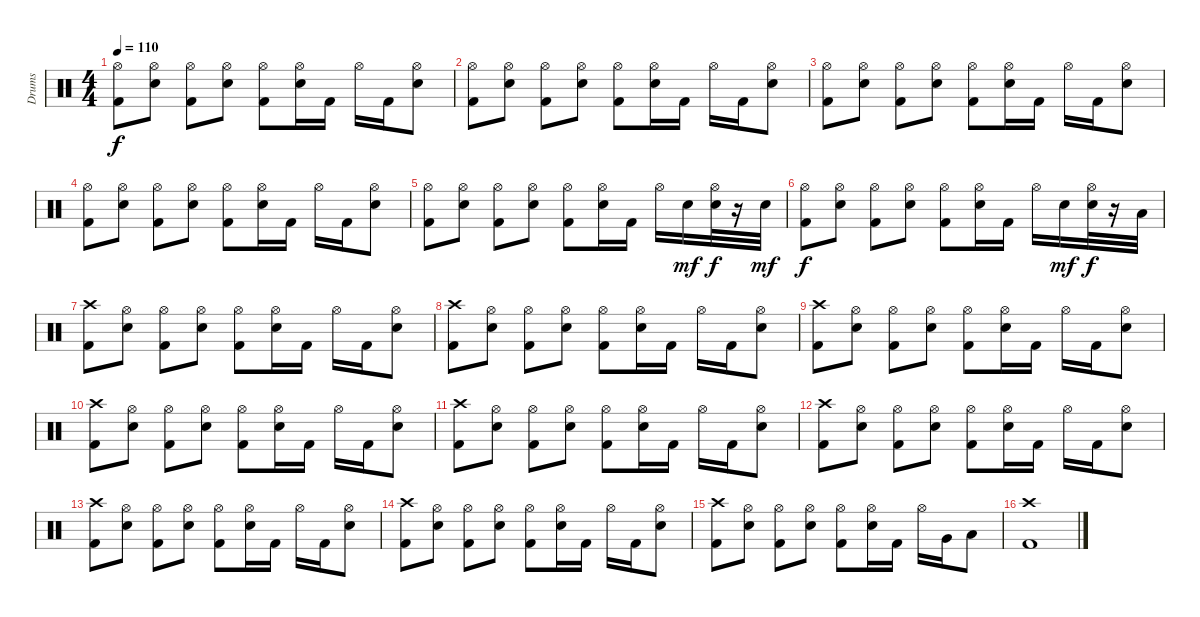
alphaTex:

\track ("Drums" "Drums") {instrument percussion}
\staff {score}
\articulation defaults
\ts (4 4)
\tempo 110
\clef neutral
\ks c
("Hi-Hat (open)" "Kick (hit) 2").8{dy f} ("Hi-Hat (open)" "Electric Snare (hit)").8 ("Hi-Hat (open)" "Kick (hit) 2").8 ("Hi-Hat (open)" "Electric Snare (hit)").8 ("Hi-Hat (open)" "Kick (hit) 2").8 ("Hi-Hat (open)" "Electric Snare (hit)").16 "Kick (hit) 2".16 "Hi-Hat (open)".16 "Kick (hit) 2".16 ("Hi-Hat (open)" "Electric Snare (hit)").8 |
("Hi-Hat (open)" "Kick (hit) 2").8 ("Hi-Hat (open)" "Electric Snare (hit)").8 ("Hi-Hat (open)" "Kick (hit) 2").8 ("Hi-Hat (open)" "Electric Snare (hit)").8 ("Hi-Hat (open)" "Kick (hit) 2").8 ("Hi-Hat (open)" "Electric Snare (hit)").16 "Kick (hit) 2".16 "Hi-Hat (open)".16 "Kick (hit) 2".16 ("Hi-Hat (open)" "Electric Snare (hit)").8 |
("Hi-Hat (open)" "Kick (hit) 2").8 ("Hi-Hat (open)" "Electric Snare (hit)").8 ("Hi-Hat (open)" "Kick (hit) 2").8 ("Hi-Hat (open)" "Electric Snare (hit)").8 ("Hi-Hat (open)" "Kick (hit) 2").8 ("Hi-Hat (open)" "Electric Snare (hit)").16 "Kick (hit) 2".16 "Hi-Hat (open)".16 "Kick (hit) 2".16 ("Hi-Hat (open)" "Electric Snare (hit)").8 |
("Hi-Hat (open)" "Kick (hit) 2").8 ("Hi-Hat (open)" "Electric Snare (hit)").8 ("Hi-Hat (open)" "Kick (hit) 2").8 ("Hi-Hat (open)" "Electric Snare (hit)").8 ("Hi-Hat (open)" "Kick (hit) 2").8 ("Hi-Hat (open)" "Electric Snare (hit)").16 "Kick (hit) 2".16 "Hi-Hat (open)".16 "Kick (hit) 2".16 ("Hi-Hat (open)" "Electric Snare (hit)").8 |
("Hi-Hat (open)" "Kick (hit) 2").8 ("Hi-Hat (open)" "Electric Snare (hit)").8 ("Hi-Hat (open)" "Kick (hit) 2").8 ("Hi-Hat (open)" "Electric Snare (hit)").8 ("Hi-Hat (open)" "Kick (hit) 2").8 ("Hi-Hat (open)" "Electric Snare (hit)").16 "Kick (hit) 2".16 "Hi-Hat (open)".16 "Electric Snare (hit)".16{dy mf} ("Hi-Hat (open)" "Electric Snare (hit)").32{dy f} r.16 "Electric Snare (hit)".32{dy mf} |
("Hi-Hat (open)" "Kick (hit) 2").8{dy f} ("Hi-Hat (open)" "Electric Snare (hit)").8 ("Hi-Hat (open)" "Kick (hit) 2").8 ("Hi-Hat (open)" "Electric Snare (hit)").8 ("Hi-Hat (open)" "Kick (hit) 2").8 ("Hi-Hat (open)" "Electric Snare (hit)").16 "Kick (hit) 2".16 "Hi-Hat (open)".16 "Electric Snare (hit)".16{dy mf} ("Hi-Hat (open)" "Electric Snare (hit)").32{dy f} r.16 "Low Tom (hit)".32 |
("Crash high (hit)" "Kick (hit) 2").8 ("Hi-Hat (open)" "Electric Snare (hit)").8 ("Hi-Hat (open)" "Kick (hit) 2").8 ("Hi-Hat (open)" "Electric Snare (hit)").8 ("Hi-Hat (open)" "Kick (hit) 2").8 ("Hi-Hat (open)" "Electric Snare (hit)").16 "Kick (hit) 2".16 "Hi-Hat (open)".16 "Kick (hit) 2".16 ("Hi-Hat (open)" "Electric Snare (hit)").8 |
("Crash high (hit)" "Kick (hit) 2").8 ("Hi-Hat (open)" "Electric Snare (hit)").8 ("Hi-Hat (open)" "Kick (hit) 2").8 ("Hi-Hat (open)" "Electric Snare (hit)").8 ("Hi-Hat (open)" "Kick (hit) 2").8 ("Hi-Hat (open)" "Electric Snare (hit)").16 "Kick (hit) 2".16 "Hi-Hat (open)".16 "Kick (hit) 2".16 ("Hi-Hat (open)" "Electric Snare (hit)").8 |
("Crash high (hit)" "Kick (hit) 2").8 ("Hi-Hat (open)" "Electric Snare (hit)").8 ("Hi-Hat (open)" "Kick (hit) 2").8 ("Hi-Hat (open)" "Electric Snare (hit)").8 ("Hi-Hat (open)" "Kick (hit) 2").8 ("Hi-Hat (open)" "Electric Snare (hit)").16 "Kick (hit) 2".16 "Hi-Hat (open)".16 "Kick (hit) 2".16 ("Hi-Hat (open)" "Electric Snare (hit)").8 |
("Crash high (hit)" "Kick (hit) 2").8 ("Hi-Hat (open)" "Electric Snare (hit)").8 ("Hi-Hat (open)" "Kick (hit) 2").8 ("Hi-Hat (open)" "Electric Snare (hit)").8 ("Hi-Hat (open)" "Kick (hit) 2").8 ("Hi-Hat (open)" "Electric Snare (hit)").16 "Kick (hit) 2".16 "Hi-Hat (open)".16 "Kick (hit) 2".16 ("Hi-Hat (open)" "Electric Snare (hit)").8 |
("Crash high (hit)" "Kick (hit) 2").8 ("Hi-Hat (open)" "Electric Snare (hit)").8 ("Hi-Hat (open)" "Kick (hit) 2").8 ("Hi-Hat (open)" "Electric Snare (hit)").8 ("Hi-Hat (open)" "Kick (hit) 2").8 ("Hi-Hat (open)" "Electric Snare (hit)").16 "Kick (hit) 2".16 "Hi-Hat (open)".16 "Kick (hit) 2".16 ("Hi-Hat (open)" "Electric Snare (hit)").8 |
("Crash high (hit)" "Kick (hit) 2").8 ("Hi-Hat (open)" "Electric Snare (hit)").8 ("Hi-Hat (open)" "Kick (hit) 2").8 ("Hi-Hat (open)" "Electric Snare (hit)").8 ("Hi-Hat (open)" "Kick (hit) 2").8 ("Hi-Hat (open)" "Electric Snare (hit)").16 "Kick (hit) 2".16 "Hi-Hat (open)".16 "Kick (hit) 2".16 ("Hi-Hat (open)" "Electric Snare (hit)").8 |
("Crash high (hit)" "Kick (hit) 2").8 ("Hi-Hat (open)" "Electric Snare (hit)").8 ("Hi-Hat (open)" "Kick (hit) 2").8 ("Hi-Hat (open)" "Electric Snare (hit)").8 ("Hi-Hat (open)" "Kick (hit) 2").8 ("Hi-Hat (open)" "Electric Snare (hit)").16 "Kick (hit) 2".16 "Hi-Hat (open)".16 "Kick (hit) 2".16 ("Hi-Hat (open)" "Electric Snare (hit)").8 |
("Crash high (hit)" "Kick (hit) 2").8 ("Hi-Hat (open)" "Electric Snare (hit)").8 ("Hi-Hat (open)" "Kick (hit) 2").8 ("Hi-Hat (open)" "Electric Snare (hit)").8 ("Hi-Hat (open)" "Kick (hit) 2").8 ("Hi-Hat (open)" "Electric Snare (hit)").16 "Kick (hit) 2".16 "Hi-Hat (open)".16 "Kick (hit) 2".16 ("Hi-Hat (open)" "Electric Snare (hit)").8 |
("Crash high (hit)" "Kick (hit) 2").8 ("Hi-Hat (open)" "Electric Snare (hit)").8 ("Hi-Hat (open)" "Kick (hit) 2").8 ("Hi-Hat (open)" "Electric Snare (hit)").8 ("Hi-Hat (open)" "Kick (hit) 2").8 ("Hi-Hat (open)" "Electric Snare (hit)").16 "Kick (hit) 2".16 "Hi-Hat (open)".16 "Very Low Tom (hit)".16 "Low Floor Tom (hit)".8 |
("Crash high (hit)" "Kick (hit) 2").1
